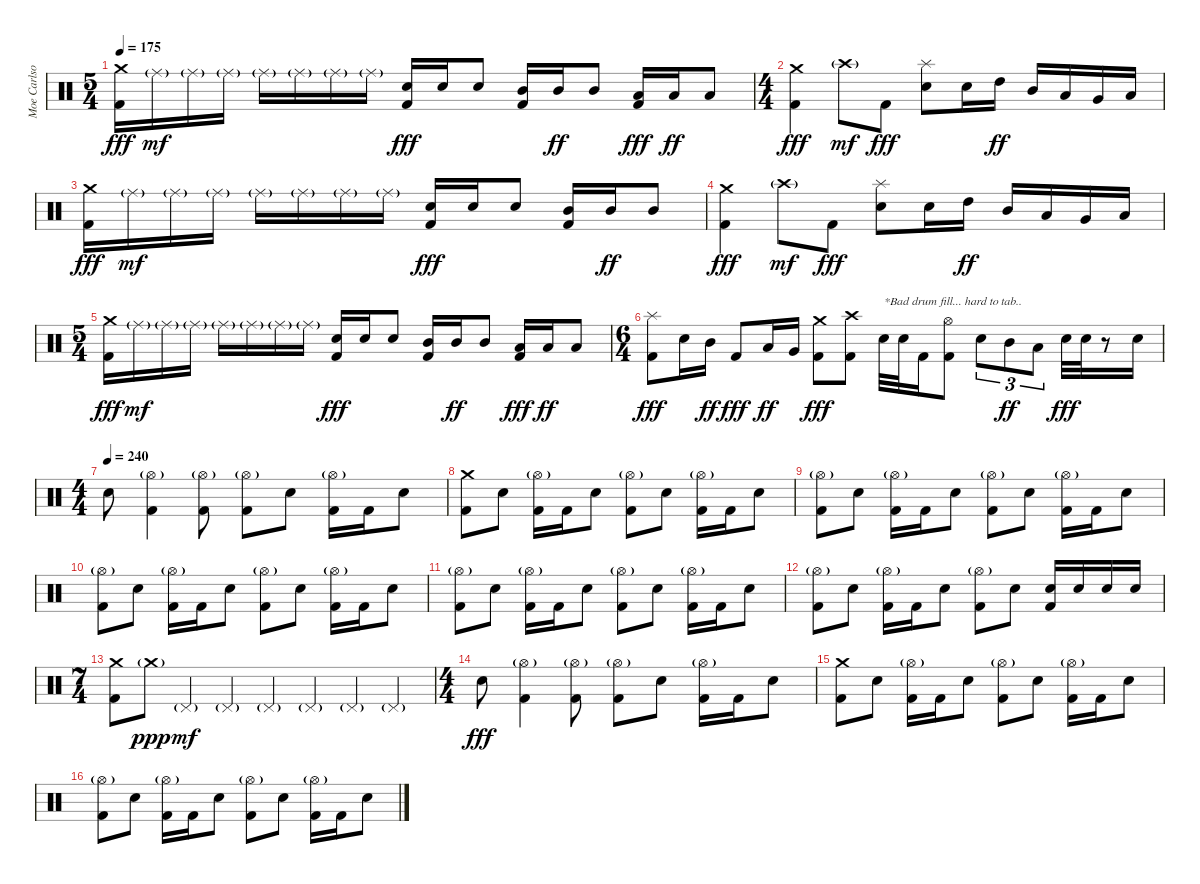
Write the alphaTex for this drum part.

\track ("Moe Carlson" "Moe Carlso") {instrument percussion}
\staff {score}
\articulation defaults
\ts (5 4)
\tempo 175
\clef neutral
\ks c
("Crash medium (hit)" "Kick (hit) 2").16{dy fff} "Ride (middle)"{g}.16{dy mf} "Ride (middle)"{g}.16 "Ride (middle)"{g}.16 "Ride (middle)"{g}.16 "Ride (middle)"{g}.16 "Ride (middle)"{g}.16 "Ride (middle)"{g}.16 ("Electric Snare (hit)" "Kick (hit) 2").16{dy fff} "Electric Snare (hit)".16 "Electric Snare (hit)".8 ("Mid Tom (hit)" "Kick (hit) 2").16 "Mid Tom (hit)".16{dy ff} "Mid Tom (hit)".8 ("Low Tom (hit)" "Kick (hit) 2").16{dy fff} "Low Tom (hit)".16{dy ff} "Low Tom (hit)".8 |
\ts (4 4)
("Crash medium (hit)" "Kick (hit) 2").4{dy fff} "Crash high (hit)"{g}.8{dy mf} "Kick (hit) 2".8{dy fff} ("Splash (hit)" "Electric Snare (hit)").8 "Electric Snare (hit)".16 "High Tom (hit)".16{dy ff} "Mid Tom (hit)".16 "Low Tom (hit)".16 "Very Low Tom (hit)".16 "Low Floor Tom (hit)".16 |
("Crash medium (hit)" "Kick (hit) 2").16{dy fff} "Ride (middle)"{g}.16{dy mf} "Ride (middle)"{g}.16 "Ride (middle)"{g}.16 "Ride (middle)"{g}.16 "Ride (middle)"{g}.16 "Ride (middle)"{g}.16 "Ride (middle)"{g}.16 ("Electric Snare (hit)" "Kick (hit) 2").16{dy fff} "Electric Snare (hit)".16 "Electric Snare (hit)".8 ("Mid Tom (hit)" "Kick (hit) 2").16 "Mid Tom (hit)".16{dy ff} "Mid Tom (hit)".8 |
("Crash medium (hit)" "Kick (hit) 2").4{dy fff} "Crash high (hit)"{g}.8{dy mf} "Kick (hit) 2".8{dy fff} ("Splash (hit)" "Electric Snare (hit)").8 "Electric Snare (hit)".16 "High Tom (hit)".16{dy ff} "Mid Tom (hit)".16 "Low Tom (hit)".16 "Very Low Tom (hit)".16 "Low Floor Tom (hit)".16 |
\ts (5 4)
("Crash medium (hit)" "Kick (hit) 2").16{dy fff} "Ride (middle)"{g}.16{dy mf} "Ride (middle)"{g}.16 "Ride (middle)"{g}.16 "Ride (middle)"{g}.16 "Ride (middle)"{g}.16 "Ride (middle)"{g}.16 "Ride (middle)"{g}.16 ("Electric Snare (hit)" "Kick (hit) 2").16{dy fff} "Electric Snare (hit)".16 "Electric Snare (hit)".8 ("Mid Tom (hit)" "Kick (hit) 2").16 "Mid Tom (hit)".16{dy ff} "Mid Tom (hit)".8 ("Low Tom (hit)" "Kick (hit) 2").16{dy fff} "Low Tom (hit)".16{dy ff} "Low Tom (hit)".8 |
\ts (6 4)
("Splash (hit)" "Kick (hit) 2").8{dy fff} "Electric Snare (hit)".16 "Mid Tom (hit)".16{dy ff} "Kick (hit) 2".8{dy fff} "Low Tom (hit)".16{dy ff} "Very Low Tom (hit)".16 ("Crash medium (hit)" "Kick (hit) 2").8{dy fff} ("Crash high (hit)" "Kick (hit) 2").8 "Electric Snare (hit)".32{txt "*Bad drum fill... hard to tab.."} "Electric Snare (hit)".32 "Kick (hit) 2".16 ("Hi-Hat (open)" "Kick (hit) 2").8 "Electric Snare (hit)".8{tu (3 2)} "Mid Tom (hit)".8{tu (3 2) dy ff} "Low Tom (hit)".8{tu (3 2)} "Electric Snare (hit)".32{dy fff} "Electric Snare (hit)".32 r.8 "Electric Snare (hit)".16 |
\ts (4 4)
\tempo (240)
"Electric Snare (hit)".8 ("Hi-Hat (open)"{g} "Kick (hit) 2").4 ("Hi-Hat (open)"{g} "Kick (hit) 2").8 ("Hi-Hat (open)"{g} "Kick (hit) 2").8 "Electric Snare (hit)".8 ("Hi-Hat (open)"{g} "Kick (hit) 2").16 "Kick (hit) 2".16 "Electric Snare (hit)".8 |
("Crash medium (hit)" "Kick (hit) 2").8 "Electric Snare (hit)".8 ("Hi-Hat (open)"{g} "Kick (hit) 2").16 "Kick (hit) 2".16 "Electric Snare (hit)".8 ("Hi-Hat (open)"{g} "Kick (hit) 2").8 "Electric Snare (hit)".8 ("Hi-Hat (open)"{g} "Kick (hit) 2").16 "Kick (hit) 2".16 "Electric Snare (hit)".8 |
("Hi-Hat (open)"{g} "Kick (hit) 2").8 "Electric Snare (hit)".8 ("Hi-Hat (open)"{g} "Kick (hit) 2").16 "Kick (hit) 2".16 "Electric Snare (hit)".8 ("Hi-Hat (open)"{g} "Kick (hit) 2").8 "Electric Snare (hit)".8 ("Hi-Hat (open)"{g} "Kick (hit) 2").16 "Kick (hit) 2".16 "Electric Snare (hit)".8 |
("Hi-Hat (open)"{g} "Kick (hit) 2").8 "Electric Snare (hit)".8 ("Hi-Hat (open)"{g} "Kick (hit) 2").16 "Kick (hit) 2".16 "Electric Snare (hit)".8 ("Hi-Hat (open)"{g} "Kick (hit) 2").8 "Electric Snare (hit)".8 ("Hi-Hat (open)"{g} "Kick (hit) 2").16 "Kick (hit) 2".16 "Electric Snare (hit)".8 |
("Hi-Hat (open)"{g} "Kick (hit) 2").8 "Electric Snare (hit)".8 ("Hi-Hat (open)"{g} "Kick (hit) 2").16 "Kick (hit) 2".16 "Electric Snare (hit)".8 ("Hi-Hat (open)"{g} "Kick (hit) 2").8 "Electric Snare (hit)".8 ("Hi-Hat (open)"{g} "Kick (hit) 2").16 "Kick (hit) 2".16 "Electric Snare (hit)".8 |
("Hi-Hat (open)"{g} "Kick (hit) 2").8 "Electric Snare (hit)".8 ("Hi-Hat (open)"{g} "Kick (hit) 2").16 "Kick (hit) 2".16 "Electric Snare (hit)".8 ("Hi-Hat (open)"{g} "Kick (hit) 2").8 "Electric Snare (hit)".8 ("Electric Snare (hit)" "Kick (hit) 2").16 "Electric Snare (hit)".16 "Electric Snare (hit)".16 "Electric Snare (hit)".16 |
\ts (7 4)
("Crash medium (hit)" "Kick (hit) 2").8 "Crash medium (hit)"{g}.8{dy ppp} "Pedal Hi-Hat (hit)"{g}.4{dy mf} "Pedal Hi-Hat (hit)"{g}.4 "Pedal Hi-Hat (hit)"{g}.4 "Pedal Hi-Hat (hit)"{g}.4 "Pedal Hi-Hat (hit)"{g}.4 "Pedal Hi-Hat (hit)"{g}.4 |
\ts (4 4)
"Electric Snare (hit)".8{dy fff} ("Hi-Hat (open)"{g} "Kick (hit) 2").4 ("Hi-Hat (open)"{g} "Kick (hit) 2").8 ("Hi-Hat (open)"{g} "Kick (hit) 2").8 "Electric Snare (hit)".8 ("Hi-Hat (open)"{g} "Kick (hit) 2").16 "Kick (hit) 2".16 "Electric Snare (hit)".8 |
("Crash medium (hit)" "Kick (hit) 2").8 "Electric Snare (hit)".8 ("Hi-Hat (open)"{g} "Kick (hit) 2").16 "Kick (hit) 2".16 "Electric Snare (hit)".8 ("Hi-Hat (open)"{g} "Kick (hit) 2").8 "Electric Snare (hit)".8 ("Hi-Hat (open)"{g} "Kick (hit) 2").16 "Kick (hit) 2".16 "Electric Snare (hit)".8 |
("Hi-Hat (open)"{g} "Kick (hit) 2").8 "Electric Snare (hit)".8 ("Hi-Hat (open)"{g} "Kick (hit) 2").16 "Kick (hit) 2".16 "Electric Snare (hit)".8 ("Hi-Hat (open)"{g} "Kick (hit) 2").8 "Electric Snare (hit)".8 ("Hi-Hat (open)"{g} "Kick (hit) 2").16 "Kick (hit) 2".16 "Electric Snare (hit)".8
